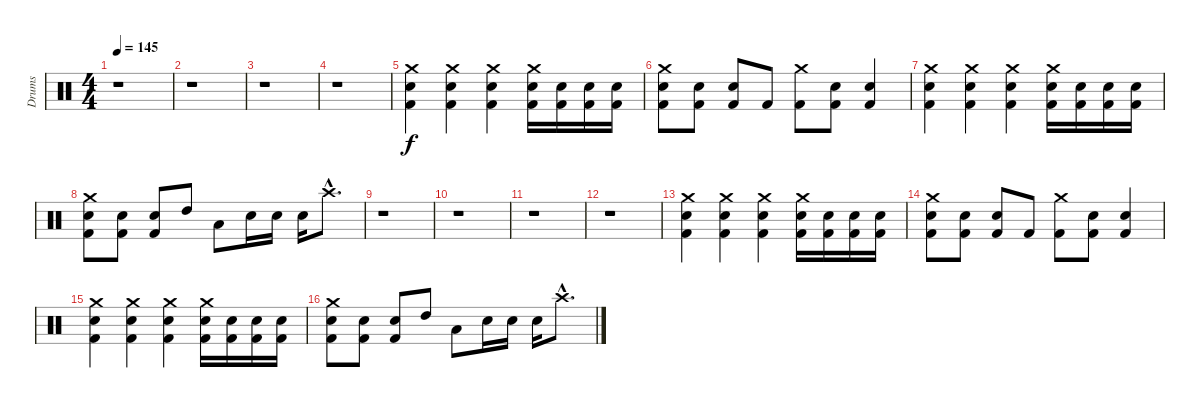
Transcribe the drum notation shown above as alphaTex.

\track ("Drums" "Drums") {instrument percussion}
\staff {score}
\articulation defaults
\ts (4 4)
\tempo 145
\clef neutral
\ks c
r.1{dy f} |
r.1 |
r.1 |
r.1 |
("Crash medium (hit)" "Snare (hit) 2" "Kick (hit) 2").4 ("Crash medium (hit)" "Snare (hit) 2" "Kick (hit) 2").4 ("Crash medium (hit)" "Snare (hit) 2" "Kick (hit) 2").4 ("Crash medium (hit)" "Snare (hit) 2" "Kick (hit) 2").16 ("Snare (hit) 2" "Kick (hit) 2").16 ("Snare (hit) 2" "Kick (hit) 2").16 ("Snare (hit) 2" "Kick (hit) 2").16 |
("Crash medium (hit)" "Snare (hit) 2" "Kick (hit) 2").8 ("Snare (hit) 2" "Kick (hit) 2").8 ("Snare (hit) 2" "Kick (hit) 2").8 "Kick (hit) 2".8 ("Crash medium (hit)" "Kick (hit) 2").8 ("Snare (hit) 2" "Kick (hit) 2").8 ("Snare (hit) 2" "Kick (hit) 2").4 |
("Crash medium (hit)" "Snare (hit) 2" "Kick (hit) 2").4 ("Crash medium (hit)" "Snare (hit) 2" "Kick (hit) 2").4 ("Crash medium (hit)" "Snare (hit) 2" "Kick (hit) 2").4 ("Crash medium (hit)" "Snare (hit) 2" "Kick (hit) 2").16 ("Snare (hit) 2" "Kick (hit) 2").16 ("Snare (hit) 2" "Kick (hit) 2").16 ("Snare (hit) 2" "Kick (hit) 2").16 |
("Crash medium (hit)" "Snare (hit) 2" "Kick (hit) 2").8 ("Snare (hit) 2" "Kick (hit) 2").8 ("Snare (hit) 2" "Kick (hit) 2").8 "High Tom (hit)".8 "Low Tom (hit)".8 "Snare (hit) 2".16 "Snare (hit) 2".16 "Snare (hit) 2".16 "Crash high (hit)"{hac}.8{d} |
r.1 |
r.1 |
r.1 |
r.1 |
("Crash medium (hit)" "Snare (hit) 2" "Kick (hit) 2").4 ("Crash medium (hit)" "Snare (hit) 2" "Kick (hit) 2").4 ("Crash medium (hit)" "Snare (hit) 2" "Kick (hit) 2").4 ("Crash medium (hit)" "Snare (hit) 2" "Kick (hit) 2").16 ("Snare (hit) 2" "Kick (hit) 2").16 ("Snare (hit) 2" "Kick (hit) 2").16 ("Snare (hit) 2" "Kick (hit) 2").16 |
("Crash medium (hit)" "Snare (hit) 2" "Kick (hit) 2").8 ("Snare (hit) 2" "Kick (hit) 2").8 ("Snare (hit) 2" "Kick (hit) 2").8 "Kick (hit) 2".8 ("Crash medium (hit)" "Kick (hit) 2").8 ("Snare (hit) 2" "Kick (hit) 2").8 ("Snare (hit) 2" "Kick (hit) 2").4 |
("Crash medium (hit)" "Snare (hit) 2" "Kick (hit) 2").4 ("Crash medium (hit)" "Snare (hit) 2" "Kick (hit) 2").4 ("Crash medium (hit)" "Snare (hit) 2" "Kick (hit) 2").4 ("Crash medium (hit)" "Snare (hit) 2" "Kick (hit) 2").16 ("Snare (hit) 2" "Kick (hit) 2").16 ("Snare (hit) 2" "Kick (hit) 2").16 ("Snare (hit) 2" "Kick (hit) 2").16 |
("Crash medium (hit)" "Snare (hit) 2" "Kick (hit) 2").8 ("Snare (hit) 2" "Kick (hit) 2").8 ("Snare (hit) 2" "Kick (hit) 2").8 "High Tom (hit)".8 "Low Tom (hit)".8 "Snare (hit) 2".16 "Snare (hit) 2".16 "Snare (hit) 2".16 "Crash high (hit)"{hac}.8{d}
